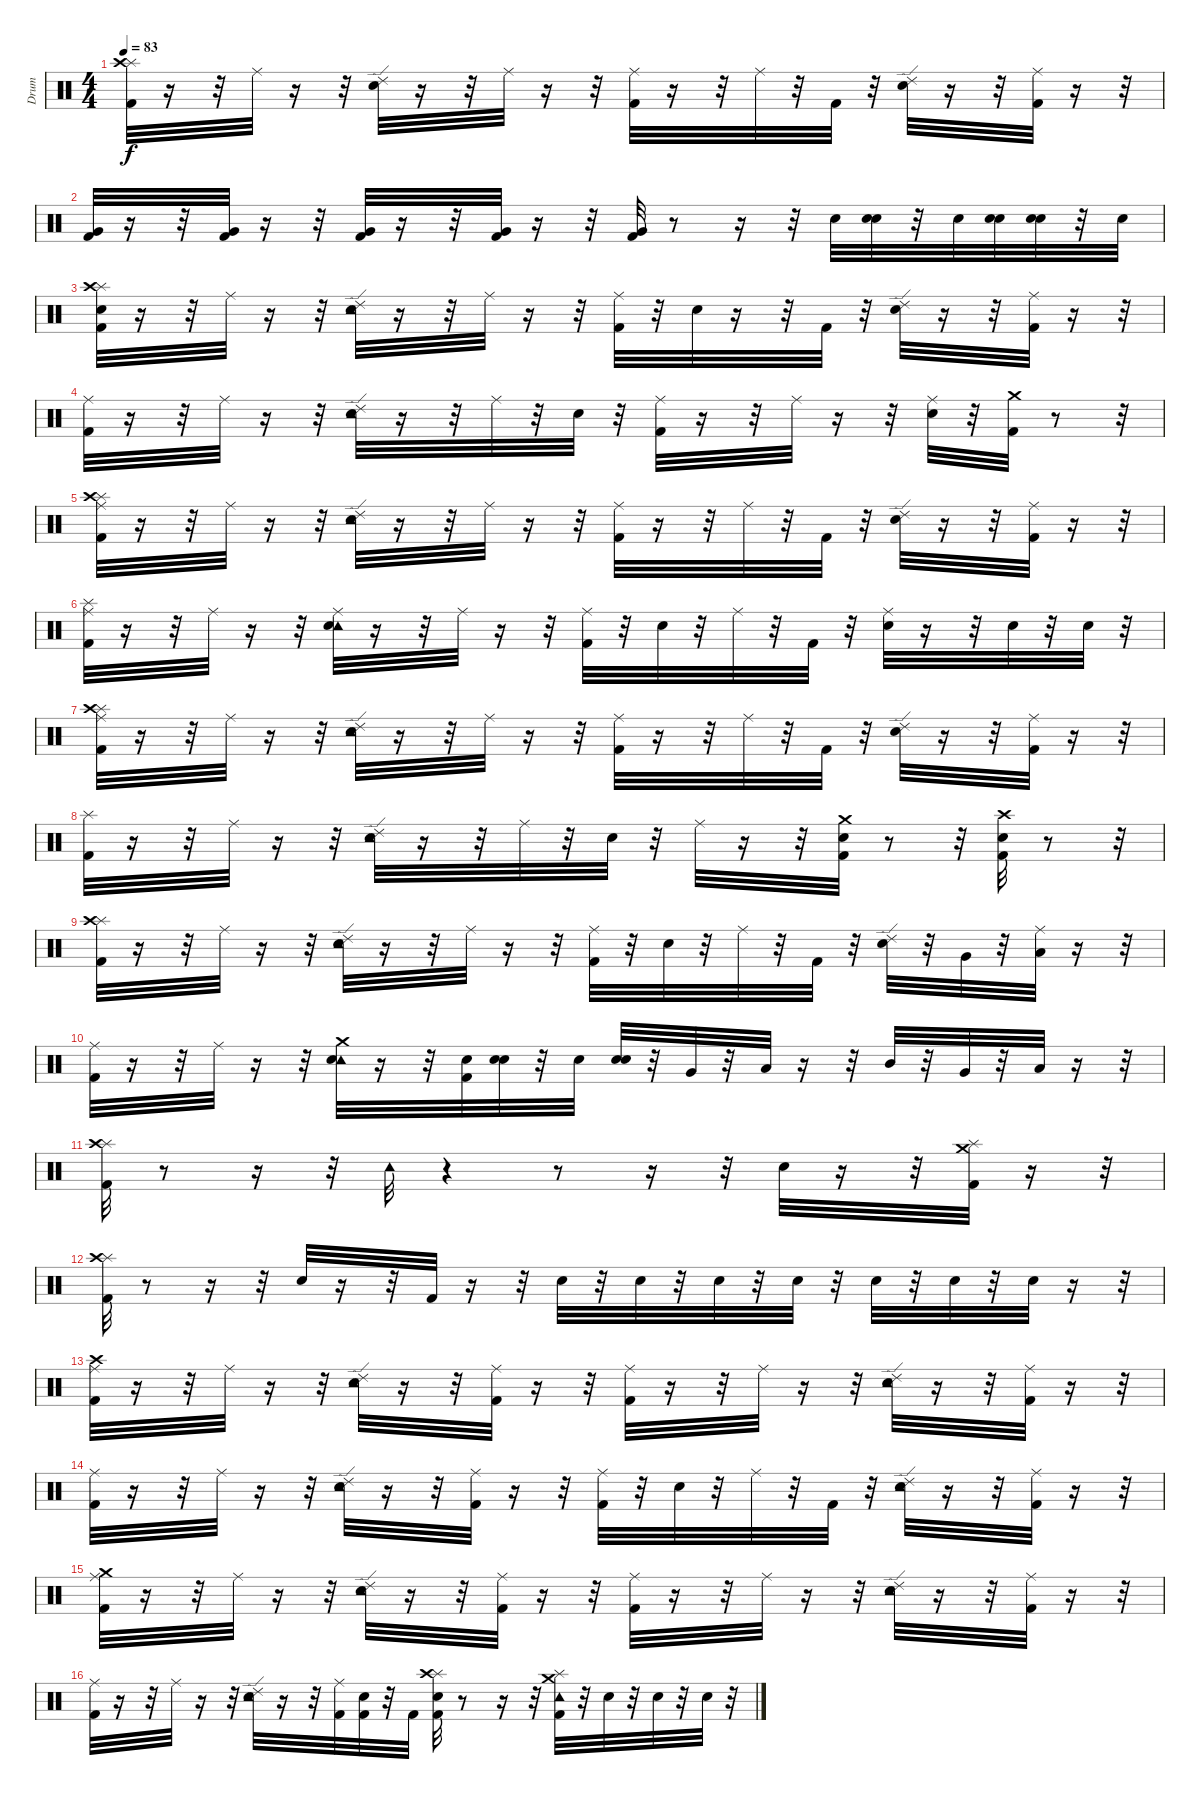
\track ("Drum" "Drum") {instrument percussion}
\staff {score}
\articulation defaults
\ts (4 4)
\tempo 83
\clef neutral
\ks c
("Splash (hit)" "Crash high (hit)" "Kick (hit) 2").32{dy f} r.16 r.32 "Ride (middle)".32 r.16 r.32 ("Ride (edge) 2" "Electric Snare (hit)").32 r.16 r.32 "Ride (middle)".32 r.16 r.32 ("Ride (middle)" "Kick (hit) 2").32 r.16 r.32 "Ride (middle)".32 r.32 "Kick (hit) 2".32 r.32 ("Ride (edge) 2" "Electric Snare (hit)").32 r.16 r.32 ("Ride (middle)" "Kick (hit) 2").32 r.16 r.32 |
("Very Low Tom (hit)" "Kick (hit) 2").32 r.16 r.32 ("Very Low Tom (hit)" "Kick (hit) 2").32 r.16 r.32 ("Very Low Tom (hit)" "Kick (hit) 2").32 r.16 r.32 ("Very Low Tom (hit)" "Kick (hit) 2").32 r.16 r.32 ("Very Low Tom (hit)" "Kick (hit) 2").32 r.8 r.16 r.32 "Electric Snare (hit)".32 ("Snare (hit)" "Electric Snare (hit)").32 r.32 "Electric Snare (hit)".32 ("Snare (hit)" "Electric Snare (hit)").32 ("Snare (hit)" "Electric Snare (hit)").32 r.32 "Electric Snare (hit)".32 |
("Snare (hit)" "Splash (hit)" "Crash high (hit)" "Kick (hit) 2").32 r.16 r.32 "Ride (middle)".32 r.16 r.32 ("Ride (edge) 2" "Tambourine (hit)" "Electric Snare (hit)").32 r.16 r.32 "Ride (middle)".32 r.16 r.32 ("Ride (middle)" "Kick (hit) 2").32 r.32 "Electric Snare (hit)".32 r.16 r.32 "Kick (hit) 2".32 r.32 ("Ride (edge) 2" "Electric Snare (hit)").32 r.16 r.32 ("Ride (middle)" "Kick (hit) 2").32 r.16 r.32 |
("Ride (middle)" "Kick (hit) 2").32 r.16 r.32 "Ride (middle)".32 r.16 r.32 ("Ride (edge) 2" "Tambourine (hit)" "Electric Snare (hit)").32 r.16 r.32 "Ride (middle)".32 r.32 "Electric Snare (hit)".32 r.32 ("Ride (middle)" "Kick (hit) 2").32 r.16 r.32 "Ride (middle)".32 r.16 r.32 ("Ride (middle)" "Electric Snare (hit)").32 r.32 ("Crash medium (hit)" "Kick (hit) 2").32 r.8 r.32 |
("Ride (middle)" "Splash (hit)" "Crash high (hit)" "Kick (hit) 2").32 r.16 r.32 "Ride (middle)".32 r.16 r.32 ("Ride (edge) 2" "Tambourine (hit)" "Electric Snare (hit)").32 r.16 r.32 "Ride (middle)".32 r.16 r.32 ("Ride (middle)" "Kick (hit) 2").32 r.16 r.32 "Ride (middle)".32 r.32 "Kick (hit) 2".32 r.32 ("Ride (edge) 2" "Electric Snare (hit)").32 r.16 r.32 ("Ride (middle)" "Kick (hit) 2").32 r.16 r.32 |
("Ride (middle)" "Splash (hit)" "Kick (hit) 2").32 r.16 r.32 "Ride (middle)".32 r.16 r.32 ("Ride (middle)" "Tambourine (hit)" "Electric Snare (hit)").32 r.16 r.32 "Ride (middle)".32 r.16 r.32 ("Ride (middle)" "Kick (hit) 2").32 r.32 "Electric Snare (hit)".32 r.32 "Ride (middle)".32 r.32 "Kick (hit) 2".32 r.32 ("Ride (middle)" "Electric Snare (hit)").32 r.16 r.32 "Electric Snare (hit)".32 r.32 "Electric Snare (hit)".32 r.32 |
("Ride (middle)" "Splash (hit)" "Crash high (hit)" "Kick (hit) 2").32 r.16 r.32 "Ride (middle)".32 r.16 r.32 ("Ride (edge) 2" "Tambourine (hit)" "Electric Snare (hit)").32 r.16 r.32 "Ride (middle)".32 r.16 r.32 ("Ride (middle)" "Kick (hit) 2").32 r.16 r.32 "Ride (middle)".32 r.32 "Kick (hit) 2".32 r.32 ("Ride (edge) 2" "Electric Snare (hit)").32 r.16 r.32 ("Ride (middle)" "Kick (hit) 2").32 r.16 r.32 |
("Splash (hit)" "Kick (hit) 2").32 r.16 r.32 "Ride (middle)".32 r.16 r.32 ("Ride (edge) 2" "Tambourine (hit)" "Electric Snare (hit)").32 r.16 r.32 "Ride (middle)".32 r.32 "Electric Snare (hit)".32 r.32 "Ride (middle)".32 r.16 r.32 ("Crash medium (hit)" "Electric Snare (hit)" "Kick (hit) 2").32 r.8 r.32 ("Crash high (hit)" "Electric Snare (hit)" "Kick (hit) 2").32 r.8 r.32 |
("Splash (hit)" "Crash high (hit)" "Kick (hit) 2").32 r.16 r.32 "Ride (middle)".32 r.16 r.32 ("Ride (edge) 2" "Tambourine (hit)" "Electric Snare (hit)").32 r.16 r.32 "Ride (middle)".32 r.16 r.32 ("Ride (middle)" "Kick (hit) 2").32 r.32 "Electric Snare (hit)".32 r.32 "Ride (middle)".32 r.32 "Kick (hit) 2".32 r.32 ("Ride (edge) 2" "Electric Snare (hit)").32 r.32 "Very Low Tom (hit)".32 r.32 ("Ride (middle)" "Low Floor Tom (hit)").32 r.16 r.32 |
("Ride (middle)" "Kick (hit) 2").32 r.16 r.32 "Ride (middle)".32 r.16 r.32 ("Crash medium (hit)" "Tambourine (hit)" "Electric Snare (hit)").32 r.16 r.32 ("Electric Snare (hit)" "Kick (hit) 2").32 ("Snare (hit)" "Electric Snare (hit)").32 r.32 "Electric Snare (hit)".32 ("Snare (hit)" "Electric Snare (hit)").32 r.32 "Very Low Tom (hit)".32 r.32 "Low Floor Tom (hit)".32 r.16 r.32 "Mid Tom (hit)".32 r.32 "Very Low Tom (hit)".32 r.32 "Low Floor Tom (hit)".32 r.16 r.32 |
("Splash (hit)" "Crash high (hit)" "Kick (hit) 2").32 r.8 r.16 r.32 "Tambourine (hit)".32 r.4 r.8 r.16 r.32 "Electric Snare (hit)".32 r.16 r.32 ("Splash (hit)" "Crash medium (hit)" "Kick (hit) 2").32 r.16 r.32 |
("Splash (hit)" "Crash high (hit)" "Kick (hit) 2").32 r.8 r.16 r.32 "Electric Snare (hit)".32 r.16 r.32 "Kick (hit) 2".32 r.16 r.32 "Electric Snare (hit)".32 r.32 "Electric Snare (hit)".32 r.32 "Electric Snare (hit)".32 r.32 "Electric Snare (hit)".32 r.32 "Electric Snare (hit)".32 r.32 "Electric Snare (hit)".32 r.32 "Electric Snare (hit)".32 r.16 r.32 |
("Ride (middle)" "Crash high (hit)" "Kick (hit) 2").32 r.16 r.32 "Ride (middle)".32 r.16 r.32 ("Ride (edge) 2" "Tambourine (hit)" "Electric Snare (hit)").32 r.16 r.32 ("Ride (middle)" "Kick (hit) 2").32 r.16 r.32 ("Ride (middle)" "Kick (hit) 2").32 r.16 r.32 "Ride (middle)".32 r.16 r.32 ("Ride (edge) 2" "Tambourine (hit)" "Electric Snare (hit)").32 r.16 r.32 ("Ride (middle)" "Kick (hit) 2").32 r.16 r.32 |
("Ride (middle)" "Kick (hit) 2").32 r.16 r.32 "Ride (middle)".32 r.16 r.32 ("Tambourine (hit)" "Ride (edge) 2" "Electric Snare (hit)").32 r.16 r.32 ("Ride (middle)" "Kick (hit) 2").32 r.16 r.32 ("Ride (middle)" "Kick (hit) 2").32 r.32 "Electric Snare (hit)".32 r.32 "Ride (middle)".32 r.32 "Kick (hit) 2".32 r.32 ("Ride (edge) 2" "Tambourine (hit)" "Electric Snare (hit)").32 r.16 r.32 ("Ride (middle)" "Kick (hit) 2").32 r.16 r.32 |
("Ride (middle)" "Crash medium (hit)" "Kick (hit) 2").32 r.16 r.32 "Ride (middle)".32 r.16 r.32 ("Ride (edge) 2" "Tambourine (hit)" "Electric Snare (hit)").32 r.16 r.32 ("Ride (middle)" "Kick (hit) 2").32 r.16 r.32 ("Ride (middle)" "Kick (hit) 2").32 r.16 r.32 "Ride (middle)".32 r.16 r.32 ("Ride (edge) 2" "Tambourine (hit)" "Electric Snare (hit)").32 r.16 r.32 ("Ride (middle)" "Kick (hit) 2").32 r.16 r.32 |
("Ride (middle)" "Kick (hit) 2").32 r.16 r.32 "Ride (middle)".32 r.16 r.32 ("Ride (edge) 2" "Tambourine (hit)" "Electric Snare (hit)").32 r.16 r.32 ("Ride (middle)" "Kick (hit) 2").32 ("Snare (hit)" "Kick (hit) 2").32 r.32 "Kick (hit) 2".32 ("Snare (hit)" "Splash (hit)" "Crash high (hit)" "Kick (hit) 2").32 r.8 r.16 r.32 ("Splash (hit)" "Crash medium (hit)" "Tambourine (hit)" "Kick (hit) 2").32 r.32 "Electric Snare (hit)".32 r.32 "Electric Snare (hit)".32 r.32 "Electric Snare (hit)".32 r.32
